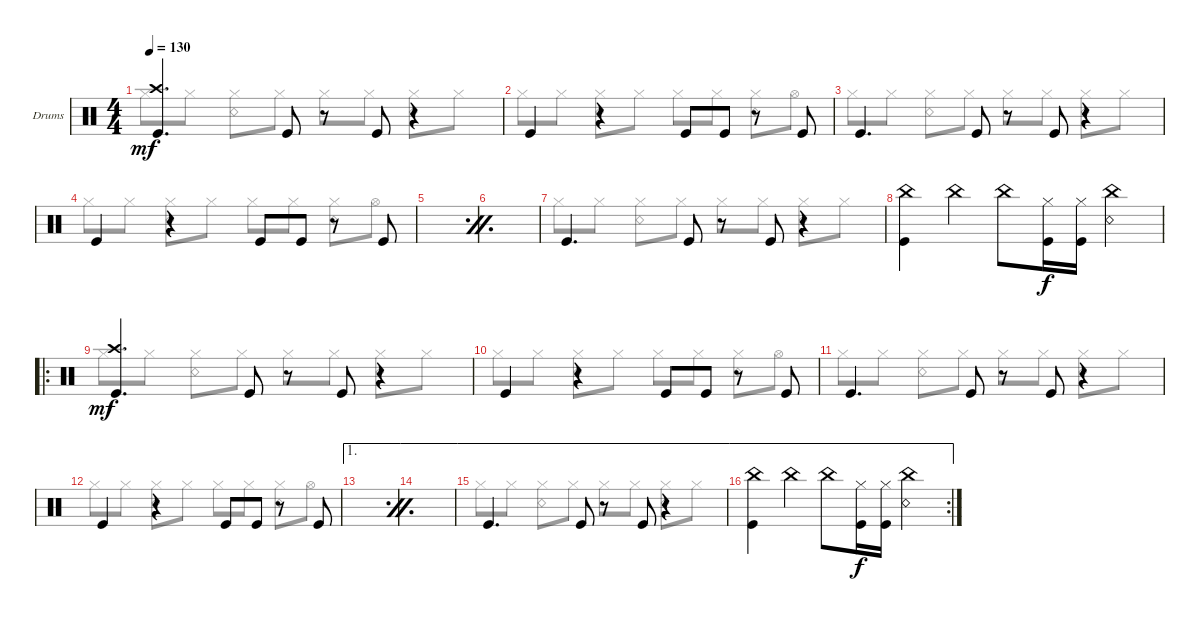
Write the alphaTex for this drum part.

\defaultSystemsLayout 4
\bracketExtendMode groupsimilarinstruments
\firstSystemTrackNameOrientation horizontal
\otherSystemsTrackNameOrientation horizontal
\track ("Drumkit" "Drums") {instrument percussion}
\staff {score}
\articulation defaults
\voice
\ts (4 4)
\tempo 130
\clef neutral
\ks c
("Kick (hit)" "Crash high (hit)").4{d dy mf} "Kick (hit)".8 r.8 "Kick (hit)".8 r.4 |
"Kick (hit)".4 r.4 "Kick (hit)".8 "Kick (hit)".8 r.8 "Kick (hit)".8 |
"Kick (hit)".4{d} "Kick (hit)".8 r.8 "Kick (hit)".8 r.4 |
"Kick (hit)".4 r.4 "Kick (hit)".8 "Kick (hit)".8 r.8 "Kick (hit)".8 |
\simile firstofdouble
|
\simile secondofdouble
|
\simile none "Kick (hit)".4{d} "Kick (hit)".8
r.8 "Kick (hit)".8 r.4 |
("Kick (hit)" "China (hit)").4 "China (hit)".4 "China (hit)".8 ("Hi-Hat (closed)" "Kick (hit)").16{dy f} ("Hi-Hat (closed)" "Kick (hit)").16 ("Snare (rim shot)" "China (hit)").4 |
\ro
("Kick (hit)" "Crash high (hit)").4{d dy mf} "Kick (hit)".8 r.8 "Kick (hit)".8 r.4 |
"Kick (hit)".4 r.4 "Kick (hit)".8 "Kick (hit)".8 r.8 "Kick (hit)".8 |
"Kick (hit)".4{d} "Kick (hit)".8 r.8 "Kick (hit)".8 r.4 |
"Kick (hit)".4 r.4 "Kick (hit)".8 "Kick (hit)".8 r.8 "Kick (hit)".8 |
\ae 1
\simile firstofdouble
|
\ae 1
\simile secondofdouble
|
\ae 1
\simile none "Kick (hit)".4{d} "Kick (hit)".8
r.8 "Kick (hit)".8 r.4 |
\ae 1
\rc 2
("Kick (hit)" "China (hit)").4 "China (hit)".4 "China (hit)".8 ("Hi-Hat (closed)" "Kick (hit)").16{dy f} ("Hi-Hat (closed)" "Kick (hit)").16 ("Snare (rim shot)" "China (hit)").4
\voice
\clef neutral
\ottava regular
\simile none
\ks c "Hi-Hat (closed)".8{dy mf} "Hi-Hat (closed)".8
("Hi-Hat (closed)" "Snare (rim shot)").8 "Hi-Hat (closed)".8 "Hi-Hat (closed)".8 "Hi-Hat (closed)".8 ("Hi-Hat (closed)" "Snare (rim shot)").8 "Hi-Hat (closed)".8 |
"Hi-Hat (closed)".8 "Hi-Hat (closed)".8 ("Hi-Hat (closed)" "Snare (rim shot)").8 "Hi-Hat (closed)".8 "Hi-Hat (closed)".8 "Hi-Hat (closed)".8 ("Hi-Hat (closed)" "Snare (rim shot)").8 "Hi-Hat (open)".8 |
"Hi-Hat (closed)".8 "Hi-Hat (closed)".8 ("Hi-Hat (closed)" "Snare (rim shot)").8 "Hi-Hat (closed)".8 "Hi-Hat (closed)".8 "Hi-Hat (closed)".8 ("Hi-Hat (closed)" "Snare (rim shot)").8 "Hi-Hat (closed)".8 |
"Hi-Hat (closed)".8 "Hi-Hat (closed)".8 ("Hi-Hat (closed)" "Snare (rim shot)").8 "Hi-Hat (closed)".8 "Hi-Hat (closed)".8 "Hi-Hat (closed)".8 ("Hi-Hat (closed)" "Snare (rim shot)").8 "Hi-Hat (open)".8 |
\simile firstofdouble
|
\simile secondofdouble
|
\simile none "Hi-Hat (closed)".8 "Hi-Hat (closed)".8
("Hi-Hat (closed)" "Snare (rim shot)").8 "Hi-Hat (closed)".8 "Hi-Hat (closed)".8 "Hi-Hat (closed)".8 ("Hi-Hat (closed)" "Snare (rim shot)").8 "Hi-Hat (closed)".8 |
|
"Hi-Hat (closed)".8 "Hi-Hat (closed)".8 ("Hi-Hat (closed)" "Snare (rim shot)").8 "Hi-Hat (closed)".8 "Hi-Hat (closed)".8 "Hi-Hat (closed)".8 ("Hi-Hat (closed)" "Snare (rim shot)").8 "Hi-Hat (closed)".8 |
"Hi-Hat (closed)".8 "Hi-Hat (closed)".8 ("Hi-Hat (closed)" "Snare (rim shot)").8 "Hi-Hat (closed)".8 "Hi-Hat (closed)".8 "Hi-Hat (closed)".8 ("Hi-Hat (closed)" "Snare (rim shot)").8 "Hi-Hat (open)".8 |
"Hi-Hat (closed)".8 "Hi-Hat (closed)".8 ("Hi-Hat (closed)" "Snare (rim shot)").8 "Hi-Hat (closed)".8 "Hi-Hat (closed)".8 "Hi-Hat (closed)".8 ("Hi-Hat (closed)" "Snare (rim shot)").8 "Hi-Hat (closed)".8 |
"Hi-Hat (closed)".8 "Hi-Hat (closed)".8 ("Hi-Hat (closed)" "Snare (rim shot)").8 "Hi-Hat (closed)".8 "Hi-Hat (closed)".8 "Hi-Hat (closed)".8 ("Hi-Hat (closed)" "Snare (rim shot)").8 "Hi-Hat (open)".8 |
\simile firstofdouble
|
\simile secondofdouble
|
\simile none "Hi-Hat (closed)".8 "Hi-Hat (closed)".8
("Hi-Hat (closed)" "Snare (rim shot)").8 "Hi-Hat (closed)".8 "Hi-Hat (closed)".8 "Hi-Hat (closed)".8 ("Hi-Hat (closed)" "Snare (rim shot)").8 "Hi-Hat (closed)".8 |
